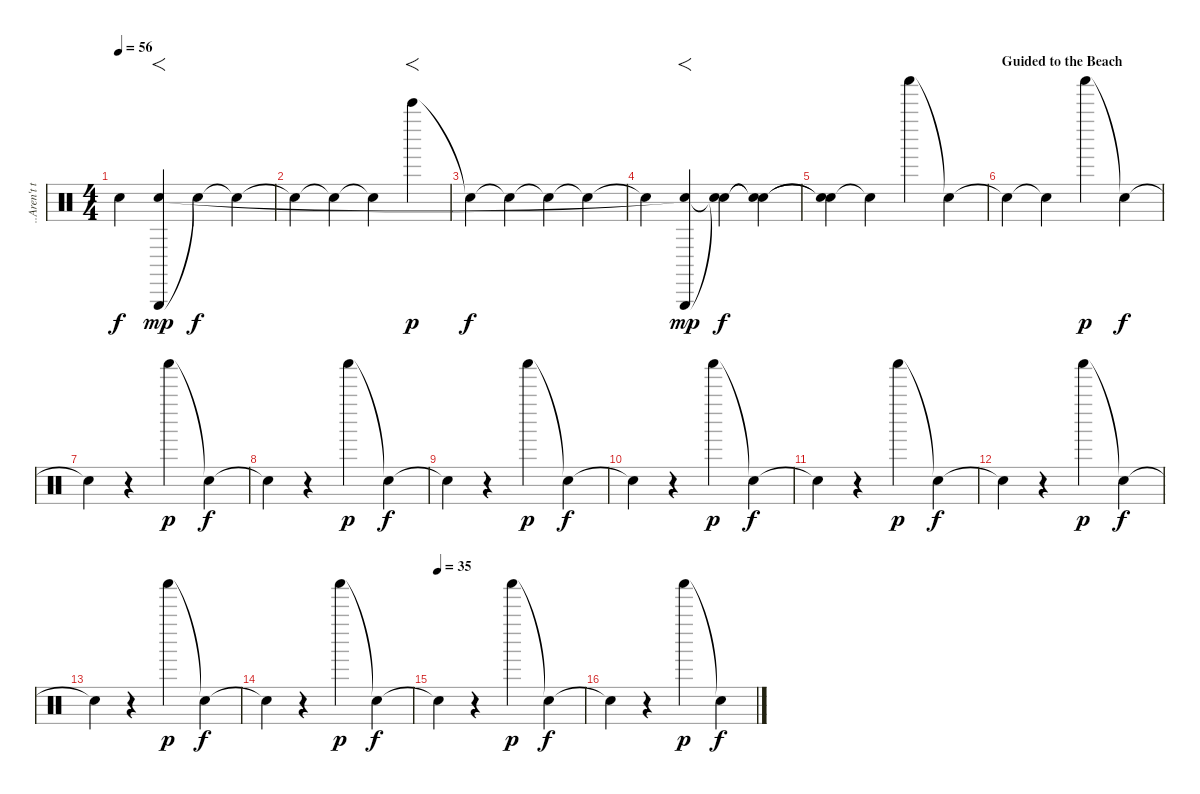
\track ("..Aren't they?.." "..Aren't t") {instrument percussion}
\staff {score}
\articulation defaults
\ts (4 4)
\tempo 56
\clef neutral
\ks c "Snare (hit)"{t}.4{dy f}
("Triangle (hit)" "Snare (hit)").4{f dy mp} "Snare (hit)"{t}.4{dy f} "Snare (hit)"{t}.4 |
"Snare (hit)"{t}.4 "Snare (hit)"{t}.4 "Snare (hit)"{t}.4 "Bell Tree (hit)".4{f dy p} |
"Snare (hit)"{t}.4{dy f} "Snare (hit)"{t}.4 "Snare (hit)"{t}.4 "Snare (hit)"{t}.4 |
"Snare (hit)"{t}.4 ("Triangle (hit)" "Snare (hit)"{t}).4{f dy mp} ("Snare (hit)"{t} "Snare (hit)"{t}).4{dy f} ("Snare (hit)"{t} "Snare (hit)"{t}).4 |
("Snare (hit)"{t} "Snare (hit)"{t}).4 "Snare (hit)"{t}.4 "Shaker (hit)".4 "Snare (hit)"{t}.4 |
\section ("" "Guided to the Beach")
"Snare (hit)"{t}.4 "Snare (hit)"{t}.4 "Shaker (hit)".4{dy p} "Snare (hit)"{t}.4{dy f} |
"Snare (hit)"{t}.4 r.4 "Shaker (hit)".4{dy p} "Snare (hit)"{t}.4{dy f} |
"Snare (hit)"{t}.4 r.4 "Shaker (hit)".4{dy p} "Snare (hit)"{t}.4{dy f} |
"Snare (hit)"{t}.4 r.4 "Shaker (hit)".4{dy p} "Snare (hit)"{t}.4{dy f} |
"Snare (hit)"{t}.4 r.4 "Shaker (hit)".4{dy p} "Snare (hit)"{t}.4{dy f} |
"Snare (hit)"{t}.4 r.4 "Shaker (hit)".4{dy p} "Snare (hit)"{t}.4{dy f} |
"Snare (hit)"{t}.4 r.4 "Shaker (hit)".4{dy p} "Snare (hit)"{t}.4{dy f} |
"Snare (hit)"{t}.4 r.4 "Shaker (hit)".4{dy p} "Snare (hit)"{t}.4{dy f} |
"Snare (hit)"{t}.4 r.4 "Shaker (hit)".4{dy p} "Snare (hit)"{t}.4{dy f} |
\tempo (35)
"Snare (hit)"{t}.4 r.4 "Shaker (hit)".4{dy p} "Snare (hit)"{t}.4{dy f} |
"Snare (hit)"{t}.4 r.4 "Shaker (hit)".4{dy p} "Snare (hit)"{t}.4{dy f}
